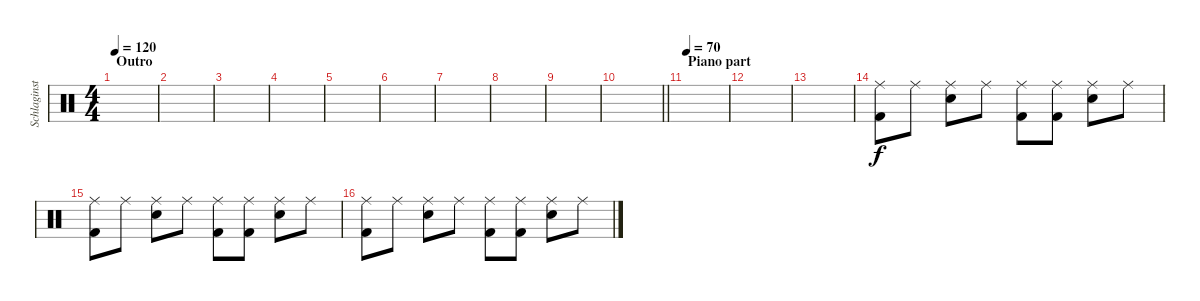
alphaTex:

\track ("Schlaginstrumente - Auswahl" "Schlaginst") {instrument percussion}
\staff {score}
\articulation defaults
\ts (4 4)
\section ("" "Outro")
\tempo 120
\clef neutral
\ks c
|
|
|
|
|
|
|
|
|
\barLineRight lightlight
|
\section ("" "Piano part")
\tempo 70
|
|
|
("Kick (hit) 2" "Ride (middle)").8{volume 8} "Ride (middle)".8 ("Snare (hit) 2" "Ride (middle)").8 "Ride (middle)".8 ("Kick (hit) 2" "Ride (middle)").8 ("Kick (hit) 2" "Ride (middle)").8 ("Snare (hit) 2" "Ride (middle)").8 "Ride (middle)".8 |
("Kick (hit) 2" "Ride (middle)").8 "Ride (middle)".8 ("Snare (hit) 2" "Ride (middle)").8 "Ride (middle)".8 ("Kick (hit) 2" "Ride (middle)").8 ("Kick (hit) 2" "Ride (middle)").8 ("Snare (hit) 2" "Ride (middle)").8 "Ride (middle)".8 |
("Kick (hit) 2" "Ride (middle)").8 "Ride (middle)".8 ("Snare (hit) 2" "Ride (middle)").8 "Ride (middle)".8 ("Kick (hit) 2" "Ride (middle)").8 ("Kick (hit) 2" "Ride (middle)").8 ("Snare (hit) 2" "Ride (middle)").8 "Ride (middle)".8
